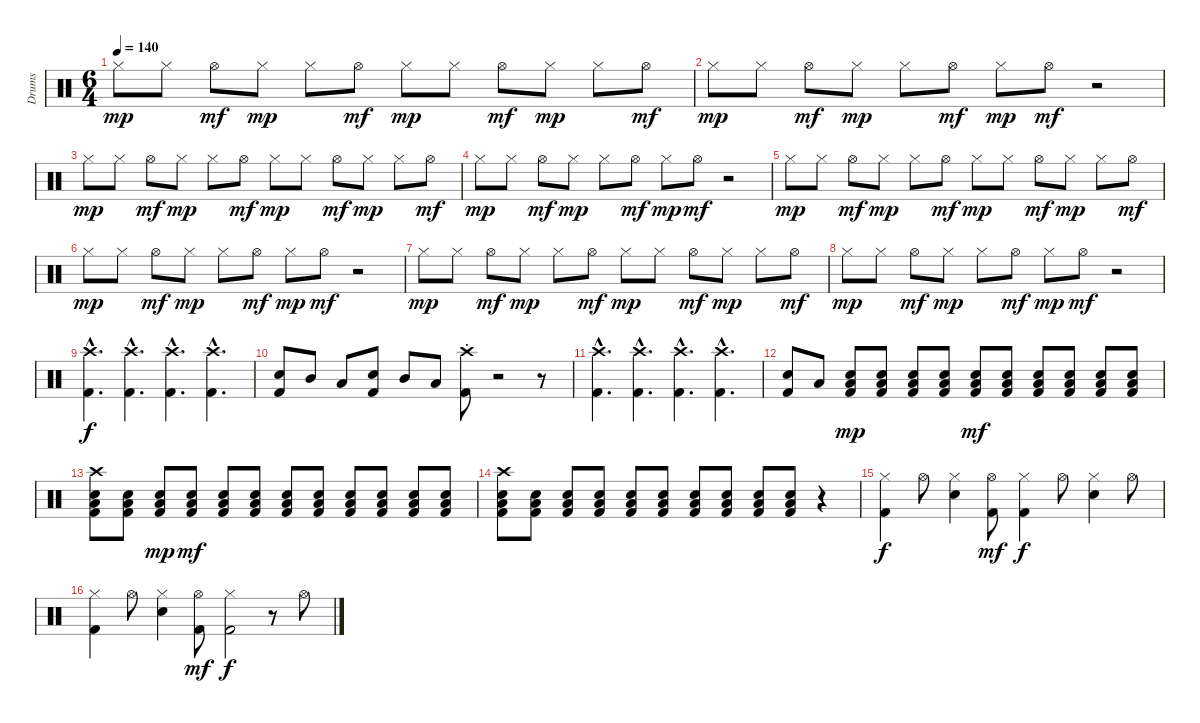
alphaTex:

\track ("Drums" "Drums") {instrument percussion}
\staff {score}
\articulation defaults
\ts (6 4)
\tempo 140
\clef neutral
\ks c "Hi-Hat (closed)".8{dy mp} "Hi-Hat (closed)".8 "Hi-Hat (open)".8{dy mf} "Hi-Hat (closed)".8{dy mp} "Hi-Hat (closed)".8 "Hi-Hat (open)".8{dy mf} "Hi-Hat (closed)".8{dy mp} "Hi-Hat (closed)".8 "Hi-Hat (open)".8{dy mf} "Hi-Hat (closed)".8{dy mp} "Hi-Hat (closed)".8 "Hi-Hat (open)".8{dy mf}
|
"Hi-Hat (closed)".8{dy mp} "Hi-Hat (closed)".8 "Hi-Hat (open)".8{dy mf} "Hi-Hat (closed)".8{dy mp} "Hi-Hat (closed)".8 "Hi-Hat (open)".8{dy mf} "Hi-Hat (closed)".8{dy mp} "Hi-Hat (open)".8{dy mf} r.2 |
"Hi-Hat (closed)".8{dy mp} "Hi-Hat (closed)".8 "Hi-Hat (open)".8{dy mf} "Hi-Hat (closed)".8{dy mp} "Hi-Hat (closed)".8 "Hi-Hat (open)".8{dy mf} "Hi-Hat (closed)".8{dy mp} "Hi-Hat (closed)".8 "Hi-Hat (open)".8{dy mf} "Hi-Hat (closed)".8{dy mp} "Hi-Hat (closed)".8 "Hi-Hat (open)".8{dy mf} |
"Hi-Hat (closed)".8{dy mp} "Hi-Hat (closed)".8 "Hi-Hat (open)".8{dy mf} "Hi-Hat (closed)".8{dy mp} "Hi-Hat (closed)".8 "Hi-Hat (open)".8{dy mf} "Hi-Hat (closed)".8{dy mp} "Hi-Hat (open)".8{dy mf} r.2 |
"Hi-Hat (closed)".8{dy mp} "Hi-Hat (closed)".8 "Hi-Hat (open)".8{dy mf} "Hi-Hat (closed)".8{dy mp} "Hi-Hat (closed)".8 "Hi-Hat (open)".8{dy mf} "Hi-Hat (closed)".8{dy mp} "Hi-Hat (closed)".8 "Hi-Hat (open)".8{dy mf} "Hi-Hat (closed)".8{dy mp} "Hi-Hat (closed)".8 "Hi-Hat (open)".8{dy mf} |
"Hi-Hat (closed)".8{dy mp} "Hi-Hat (closed)".8 "Hi-Hat (open)".8{dy mf} "Hi-Hat (closed)".8{dy mp} "Hi-Hat (closed)".8 "Hi-Hat (open)".8{dy mf} "Hi-Hat (closed)".8{dy mp} "Hi-Hat (open)".8{dy mf} r.2 |
"Hi-Hat (closed)".8{dy mp} "Hi-Hat (closed)".8 "Hi-Hat (open)".8{dy mf} "Hi-Hat (closed)".8{dy mp} "Hi-Hat (closed)".8 "Hi-Hat (open)".8{dy mf} "Hi-Hat (closed)".8{dy mp} "Hi-Hat (closed)".8 "Hi-Hat (open)".8{dy mf} "Hi-Hat (closed)".8{dy mp} "Hi-Hat (closed)".8 "Hi-Hat (open)".8{dy mf} |
"Hi-Hat (closed)".8{dy mp} "Hi-Hat (closed)".8 "Hi-Hat (open)".8{dy mf} "Hi-Hat (closed)".8{dy mp} "Hi-Hat (closed)".8 "Hi-Hat (open)".8{dy mf} "Hi-Hat (closed)".8{dy mp} "Hi-Hat (open)".8{dy mf} r.2 |
("Crash high (hit)"{hac} "Kick (hit) 2"{hac}).4{d dy f} ("Crash high (hit)"{hac} "Kick (hit) 2"{hac}).4{d} ("Crash high (hit)"{hac} "Kick (hit) 2"{hac}).4{d} ("Crash high (hit)"{hac} "Kick (hit) 2"{hac}).4{d} |
("Snare (hit) 2" "Kick (hit) 2").8 "Mid Tom (hit)".8 "Low Tom (hit)".8 ("Snare (hit) 2" "Kick (hit) 2").8 "Mid Tom (hit)".8 "Low Tom (hit)".8 ("Crash high (hit)"{st} "Kick (hit) 2").8 r.2 r.8 |
("Crash high (hit)"{hac} "Kick (hit) 2"{hac}).4{d} ("Crash high (hit)"{hac} "Kick (hit) 2"{hac}).4{d} ("Crash high (hit)"{hac} "Kick (hit) 2"{hac}).4{d} ("Crash high (hit)"{hac} "Kick (hit) 2"{hac}).4{d} |
("Snare (hit) 2" "Kick (hit) 2").8 "Low Tom (hit)".8 ("Snare (hit) 2" "Low Floor Tom (hit)" "Kick (hit) 2").8{dy mp} ("Snare (hit) 2" "Low Floor Tom (hit)" "Kick (hit) 2").8 ("Snare (hit) 2" "Low Floor Tom (hit)" "Kick (hit) 2").8 ("Snare (hit) 2" "Low Floor Tom (hit)" "Kick (hit) 2").8 ("Snare (hit) 2" "Low Floor Tom (hit)" "Kick (hit) 2").8{dy mf} ("Snare (hit) 2" "Low Floor Tom (hit)" "Kick (hit) 2").8 ("Snare (hit) 2" "Low Floor Tom (hit)" "Kick (hit) 2").8 ("Snare (hit) 2" "Low Floor Tom (hit)" "Kick (hit) 2").8 ("Snare (hit) 2" "Low Floor Tom (hit)" "Kick (hit) 2").8 ("Snare (hit) 2" "Low Floor Tom (hit)" "Kick (hit) 2").8 |
("Crash high (hit)" "Snare (hit) 2" "Low Floor Tom (hit)" "Kick (hit) 2").8 ("Snare (hit) 2" "Low Floor Tom (hit)" "Kick (hit) 2").8 ("Snare (hit) 2" "Low Floor Tom (hit)" "Kick (hit) 2").8{dy mp} ("Snare (hit) 2" "Low Floor Tom (hit)" "Kick (hit) 2").8{dy mf} ("Snare (hit) 2" "Low Floor Tom (hit)" "Kick (hit) 2").8 ("Snare (hit) 2" "Low Floor Tom (hit)" "Kick (hit) 2").8 ("Snare (hit) 2" "Low Floor Tom (hit)" "Kick (hit) 2").8 ("Snare (hit) 2" "Low Floor Tom (hit)" "Kick (hit) 2").8 ("Snare (hit) 2" "Low Floor Tom (hit)" "Kick (hit) 2").8 ("Snare (hit) 2" "Low Floor Tom (hit)" "Kick (hit) 2").8 ("Snare (hit) 2" "Low Floor Tom (hit)" "Kick (hit) 2").8 ("Snare (hit) 2" "Low Floor Tom (hit)" "Kick (hit) 2").8 |
("Crash high (hit)" "Snare (hit) 2" "Low Floor Tom (hit)" "Kick (hit) 2").8 ("Snare (hit) 2" "Low Floor Tom (hit)" "Kick (hit) 2").8 ("Snare (hit) 2" "Low Floor Tom (hit)" "Kick (hit) 2").8 ("Snare (hit) 2" "Low Floor Tom (hit)" "Kick (hit) 2").8 ("Snare (hit) 2" "Low Floor Tom (hit)" "Kick (hit) 2").8 ("Snare (hit) 2" "Low Floor Tom (hit)" "Kick (hit) 2").8 ("Snare (hit) 2" "Low Floor Tom (hit)" "Kick (hit) 2").8 ("Snare (hit) 2" "Low Floor Tom (hit)" "Kick (hit) 2").8 ("Snare (hit) 2" "Low Floor Tom (hit)" "Kick (hit) 2").8 ("Snare (hit) 2" "Low Floor Tom (hit)" "Kick (hit) 2").8 r.4 |
("Hi-Hat (closed)" "Kick (hit) 2").4{dy f} "Hi-Hat (open)".8 ("Hi-Hat (closed)" "Snare (hit) 2").4 ("Hi-Hat (open)" "Kick (hit) 2").8{dy mf} ("Hi-Hat (closed)" "Kick (hit) 2").4{dy f} "Hi-Hat (open)".8 ("Hi-Hat (closed)" "Snare (hit) 2").4 "Hi-Hat (open)".8 |
("Hi-Hat (closed)" "Kick (hit) 2").4 "Hi-Hat (open)".8 ("Hi-Hat (closed)" "Snare (hit) 2").4 ("Hi-Hat (open)" "Kick (hit) 2").8{dy mf} ("Hi-Hat (closed)" "Kick (hit) 2").2{dy f} r.8 "Hi-Hat (open)".8
